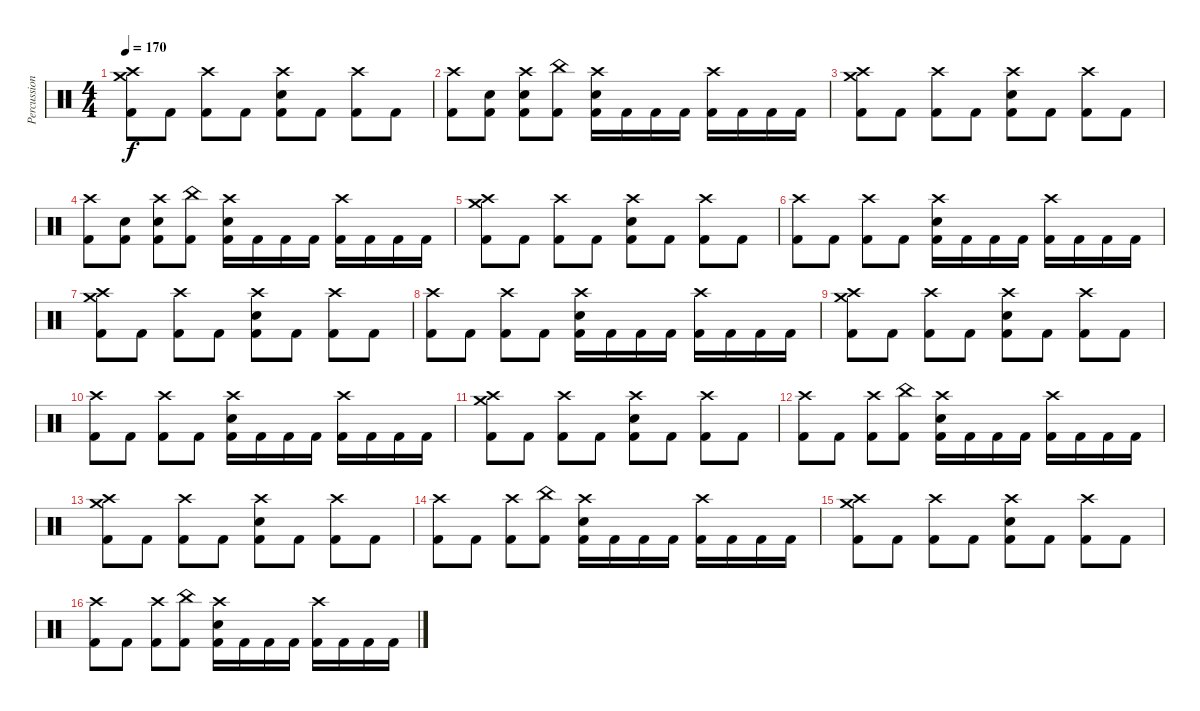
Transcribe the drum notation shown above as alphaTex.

\track ("Percussion" "Percussion") {instrument percussion}
\staff {score}
\articulation defaults
\ts (4 4)
\tempo 170
\clef neutral
\ks c
("Crash medium (hit)" "Crash high (hit)" "Kick (hit) 2").8{dy f} "Kick (hit) 2".8 ("Crash high (hit)" "Kick (hit) 2").8 "Kick (hit) 2".8 ("Snare (hit) 2" "Crash high (hit)" "Kick (hit) 2").8 "Kick (hit) 2".8 ("Crash high (hit)" "Kick (hit) 2").8 "Kick (hit) 2".8 |
("Crash high (hit)" "Kick (hit) 2").8 ("Snare (hit) 2" "Kick (hit) 2").8 ("Snare (hit) 2" "Crash high (hit)" "Kick (hit) 2").8 ("China (hit)" "Kick (hit) 2").8 ("Snare (hit) 2" "Crash high (hit)" "Kick (hit) 2").16 "Kick (hit) 2".16 "Kick (hit) 2".16 "Kick (hit) 2".16 ("Crash high (hit)" "Kick (hit) 2").16 "Kick (hit) 2".16 "Kick (hit) 2".16 "Kick (hit) 2".16 |
("Crash medium (hit)" "Crash high (hit)" "Kick (hit) 2").8 "Kick (hit) 2".8 ("Crash high (hit)" "Kick (hit) 2").8 "Kick (hit) 2".8 ("Snare (hit) 2" "Crash high (hit)" "Kick (hit) 2").8 "Kick (hit) 2".8 ("Crash high (hit)" "Kick (hit) 2").8 "Kick (hit) 2".8 |
("Crash high (hit)" "Kick (hit) 2").8 ("Snare (hit) 2" "Kick (hit) 2").8 ("Snare (hit) 2" "Crash high (hit)" "Kick (hit) 2").8 ("China (hit)" "Kick (hit) 2").8 ("Snare (hit) 2" "Crash high (hit)" "Kick (hit) 2").16 "Kick (hit) 2".16 "Kick (hit) 2".16 "Kick (hit) 2".16 ("Crash high (hit)" "Kick (hit) 2").16 "Kick (hit) 2".16 "Kick (hit) 2".16 "Kick (hit) 2".16 |
("Crash medium (hit)" "Crash high (hit)" "Kick (hit) 2").8 "Kick (hit) 2".8 ("Crash high (hit)" "Kick (hit) 2").8 "Kick (hit) 2".8 ("Snare (hit) 2" "Crash high (hit)" "Kick (hit) 2").8 "Kick (hit) 2".8 ("Crash high (hit)" "Kick (hit) 2").8 "Kick (hit) 2".8 |
("Crash high (hit)" "Kick (hit) 2").8 "Kick (hit) 2".8 ("Crash high (hit)" "Kick (hit) 2").8 "Kick (hit) 2".8 ("Snare (hit) 2" "Crash high (hit)" "Kick (hit) 2").16 "Kick (hit) 2".16 "Kick (hit) 2".16 "Kick (hit) 2".16 ("Crash high (hit)" "Kick (hit) 2").16 "Kick (hit) 2".16 "Kick (hit) 2".16 "Kick (hit) 2".16 |
("Crash medium (hit)" "Crash high (hit)" "Kick (hit) 2").8 "Kick (hit) 2".8 ("Crash high (hit)" "Kick (hit) 2").8 "Kick (hit) 2".8 ("Snare (hit) 2" "Crash high (hit)" "Kick (hit) 2").8 "Kick (hit) 2".8 ("Crash high (hit)" "Kick (hit) 2").8 "Kick (hit) 2".8 |
("Crash high (hit)" "Kick (hit) 2").8 "Kick (hit) 2".8 ("Crash high (hit)" "Kick (hit) 2").8 "Kick (hit) 2".8 ("Snare (hit) 2" "Crash high (hit)" "Kick (hit) 2").16 "Kick (hit) 2".16 "Kick (hit) 2".16 "Kick (hit) 2".16 ("Crash high (hit)" "Kick (hit) 2").16 "Kick (hit) 2".16 "Kick (hit) 2".16 "Kick (hit) 2".16 |
("Crash medium (hit)" "Crash high (hit)" "Kick (hit) 2").8 "Kick (hit) 2".8 ("Crash high (hit)" "Kick (hit) 2").8 "Kick (hit) 2".8 ("Snare (hit) 2" "Crash high (hit)" "Kick (hit) 2").8 "Kick (hit) 2".8 ("Crash high (hit)" "Kick (hit) 2").8 "Kick (hit) 2".8 |
("Crash high (hit)" "Kick (hit) 2").8 "Kick (hit) 2".8 ("Crash high (hit)" "Kick (hit) 2").8 "Kick (hit) 2".8 ("Snare (hit) 2" "Crash high (hit)" "Kick (hit) 2").16 "Kick (hit) 2".16 "Kick (hit) 2".16 "Kick (hit) 2".16 ("Crash high (hit)" "Kick (hit) 2").16 "Kick (hit) 2".16 "Kick (hit) 2".16 "Kick (hit) 2".16 |
("Crash medium (hit)" "Crash high (hit)" "Kick (hit) 2").8 "Kick (hit) 2".8 ("Crash high (hit)" "Kick (hit) 2").8 "Kick (hit) 2".8 ("Snare (hit) 2" "Crash high (hit)" "Kick (hit) 2").8 "Kick (hit) 2".8 ("Crash high (hit)" "Kick (hit) 2").8 "Kick (hit) 2".8 |
("Crash high (hit)" "Kick (hit) 2").8 "Kick (hit) 2".8 ("Crash high (hit)" "Kick (hit) 2").8 ("China (hit)" "Kick (hit) 2").8 ("Snare (hit) 2" "Crash high (hit)" "Kick (hit) 2").16 "Kick (hit) 2".16 "Kick (hit) 2".16 "Kick (hit) 2".16 ("Crash high (hit)" "Kick (hit) 2").16 "Kick (hit) 2".16 "Kick (hit) 2".16 "Kick (hit) 2".16 |
("Crash medium (hit)" "Crash high (hit)" "Kick (hit) 2").8 "Kick (hit) 2".8 ("Crash high (hit)" "Kick (hit) 2").8 "Kick (hit) 2".8 ("Snare (hit) 2" "Crash high (hit)" "Kick (hit) 2").8 "Kick (hit) 2".8 ("Crash high (hit)" "Kick (hit) 2").8 "Kick (hit) 2".8 |
("Crash high (hit)" "Kick (hit) 2").8 "Kick (hit) 2".8 ("Crash high (hit)" "Kick (hit) 2").8 ("China (hit)" "Kick (hit) 2").8 ("Snare (hit) 2" "Crash high (hit)" "Kick (hit) 2").16 "Kick (hit) 2".16 "Kick (hit) 2".16 "Kick (hit) 2".16 ("Crash high (hit)" "Kick (hit) 2").16 "Kick (hit) 2".16 "Kick (hit) 2".16 "Kick (hit) 2".16 |
("Crash medium (hit)" "Crash high (hit)" "Kick (hit) 2").8 "Kick (hit) 2".8 ("Crash high (hit)" "Kick (hit) 2").8 "Kick (hit) 2".8 ("Snare (hit) 2" "Crash high (hit)" "Kick (hit) 2").8 "Kick (hit) 2".8 ("Crash high (hit)" "Kick (hit) 2").8 "Kick (hit) 2".8 |
("Crash high (hit)" "Kick (hit) 2").8 "Kick (hit) 2".8 ("Crash high (hit)" "Kick (hit) 2").8 ("China (hit)" "Kick (hit) 2").8 ("Snare (hit) 2" "Crash high (hit)" "Kick (hit) 2").16 "Kick (hit) 2".16 "Kick (hit) 2".16 "Kick (hit) 2".16 ("Crash high (hit)" "Kick (hit) 2").16 "Kick (hit) 2".16 "Kick (hit) 2".16 "Kick (hit) 2".16
